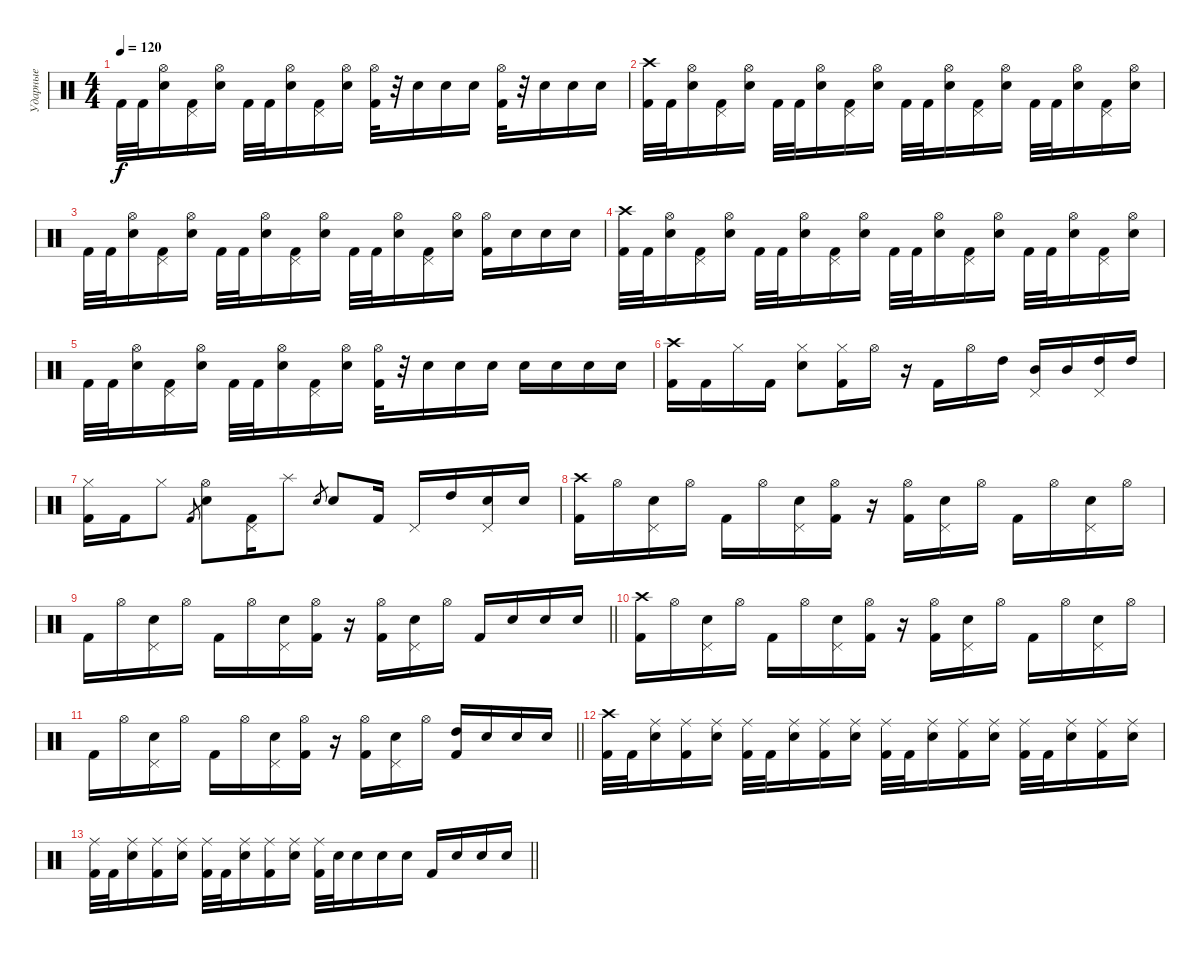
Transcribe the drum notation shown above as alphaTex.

\track ("Ударные" "Ударные") {instrument percussion}
\staff {score}
\articulation defaults
\ts (4 4)
\tempo 120
\clef neutral
\ks c "Kick (hit) 2".32{dy f} "Kick (hit) 2".32
("Electric Snare (hit)" "Hi-Hat (open)").16 ("Kick (hit) 2" "Pedal Hi-Hat (hit)").16 ("Electric Snare (hit)" "Hi-Hat (open)").16 "Kick (hit) 2".32 "Kick (hit) 2".32 ("Electric Snare (hit)" "Hi-Hat (open)").16 ("Kick (hit) 2" "Pedal Hi-Hat (hit)").16 ("Electric Snare (hit)" "Hi-Hat (open)").16 ("Kick (hit) 2" "Hi-Hat (open)").32 r.32 "Electric Snare (hit)".16 "Electric Snare (hit)".16 "Electric Snare (hit)".16 ("Kick (hit) 2" "Hi-Hat (open)").32 r.32 "Electric Snare (hit)".16 "Electric Snare (hit)".16 "Electric Snare (hit)".16 |
("Kick (hit) 2" "Crash high (hit)").32 "Kick (hit) 2".32 ("Electric Snare (hit)" "Hi-Hat (open)").16 ("Kick (hit) 2" "Pedal Hi-Hat (hit)").16 ("Electric Snare (hit)" "Hi-Hat (open)").16 "Kick (hit) 2".32 "Kick (hit) 2".32 ("Electric Snare (hit)" "Hi-Hat (open)").16 ("Kick (hit) 2" "Pedal Hi-Hat (hit)").16 ("Electric Snare (hit)" "Hi-Hat (open)").16 "Kick (hit) 2".32 "Kick (hit) 2".32 ("Electric Snare (hit)" "Hi-Hat (open)").16 ("Kick (hit) 2" "Pedal Hi-Hat (hit)").16 ("Electric Snare (hit)" "Hi-Hat (open)").16 "Kick (hit) 2".32 "Kick (hit) 2".32 ("Electric Snare (hit)" "Hi-Hat (open)").16 ("Kick (hit) 2" "Pedal Hi-Hat (hit)").16 ("Electric Snare (hit)" "Hi-Hat (open)").16 |
"Kick (hit) 2".32 "Kick (hit) 2".32 ("Electric Snare (hit)" "Hi-Hat (open)").16 ("Kick (hit) 2" "Pedal Hi-Hat (hit)").16 ("Electric Snare (hit)" "Hi-Hat (open)").16 "Kick (hit) 2".32 "Kick (hit) 2".32 ("Electric Snare (hit)" "Hi-Hat (open)").16 ("Kick (hit) 2" "Pedal Hi-Hat (hit)").16 ("Electric Snare (hit)" "Hi-Hat (open)").16 "Kick (hit) 2".32 "Kick (hit) 2".32 ("Electric Snare (hit)" "Hi-Hat (open)").16 ("Kick (hit) 2" "Pedal Hi-Hat (hit)").16 ("Electric Snare (hit)" "Hi-Hat (open)").16 ("Kick (hit) 2" "Hi-Hat (open)").16 "Electric Snare (hit)".16 "Electric Snare (hit)".16 "Electric Snare (hit)".16 |
("Kick (hit) 2" "Crash high (hit)").32 "Kick (hit) 2".32 ("Electric Snare (hit)" "Hi-Hat (open)").16 ("Kick (hit) 2" "Pedal Hi-Hat (hit)").16 ("Electric Snare (hit)" "Hi-Hat (open)").16 "Kick (hit) 2".32 "Kick (hit) 2".32 ("Electric Snare (hit)" "Hi-Hat (open)").16 ("Kick (hit) 2" "Pedal Hi-Hat (hit)").16 ("Electric Snare (hit)" "Hi-Hat (open)").16 "Kick (hit) 2".32 "Kick (hit) 2".32 ("Electric Snare (hit)" "Hi-Hat (open)").16 ("Kick (hit) 2" "Pedal Hi-Hat (hit)").16 ("Electric Snare (hit)" "Hi-Hat (open)").16 "Kick (hit) 2".32 "Kick (hit) 2".32 ("Electric Snare (hit)" "Hi-Hat (open)").16 ("Kick (hit) 2" "Pedal Hi-Hat (hit)").16 ("Electric Snare (hit)" "Hi-Hat (open)").16 |
"Kick (hit) 2".32 "Kick (hit) 2".32 ("Electric Snare (hit)" "Hi-Hat (open)").16 ("Kick (hit) 2" "Pedal Hi-Hat (hit)").16 ("Electric Snare (hit)" "Hi-Hat (open)").16 "Kick (hit) 2".32 "Kick (hit) 2".32 ("Electric Snare (hit)" "Hi-Hat (open)").16 ("Kick (hit) 2" "Pedal Hi-Hat (hit)").16 ("Electric Snare (hit)" "Hi-Hat (open)").16 ("Kick (hit) 2" "Hi-Hat (open)").32 r.32 "Electric Snare (hit)".16 "Electric Snare (hit)".16 "Electric Snare (hit)".16 "Electric Snare (hit)".16 "Electric Snare (hit)".16 "Electric Snare (hit)".16 "Electric Snare (hit)".16 |
("Kick (hit) 2" "Crash high (hit)").16 "Kick (hit) 2".16 "Hi-Hat (closed)".16 "Kick (hit) 2".16 ("Electric Snare (hit)" "Hi-Hat (closed)").8 ("Kick (hit) 2" "Hi-Hat (closed)").16 "Hi-Hat (open)".16 r.16 "Kick (hit) 2".16 "Hi-Hat (open)".16 "High Tom (hit)".16 ("Pedal Hi-Hat (hit)" "Mid Tom (hit)").16 "Mid Tom (hit)".16 ("Pedal Hi-Hat (hit)" "High Tom (hit)").16 "High Tom (hit)".16 |
("Kick (hit) 2" "Hi-Hat (closed)").16 "Kick (hit) 2".16 "Hi-Hat (closed)".8 "Kick (hit) 2".8{gr} ("Electric Snare (hit)" "Hi-Hat (open)").8 ("Kick (hit) 2" "Pedal Hi-Hat (hit)").16 "Splash (hit)".8 "Electric Snare (hit)".8{gr} "Electric Snare (hit)".8 "Kick (hit) 2".16 "Pedal Hi-Hat (hit)".16 "High Tom (hit)".16 ("Pedal Hi-Hat (hit)" "Electric Snare (hit)").16 "Electric Snare (hit)".16 |
("Kick (hit) 2" "Crash high (hit)").16 "Hi-Hat (open)".16 ("Pedal Hi-Hat (hit)" "Electric Snare (hit)").16 "Hi-Hat (open)".16 "Kick (hit) 2".16 "Hi-Hat (open)".16 ("Pedal Hi-Hat (hit)" "Electric Snare (hit)").16 ("Kick (hit) 2" "Hi-Hat (open)").16 r.16 ("Kick (hit) 2" "Hi-Hat (open)").16 ("Pedal Hi-Hat (hit)" "Electric Snare (hit)").16 "Hi-Hat (open)".16 "Kick (hit) 2".16 "Hi-Hat (open)".16 ("Pedal Hi-Hat (hit)" "Electric Snare (hit)").16 "Hi-Hat (open)".16 |
\barLineRight lightlight "Kick (hit) 2".16 "Hi-Hat (open)".16
("Pedal Hi-Hat (hit)" "Electric Snare (hit)").16 "Hi-Hat (open)".16 "Kick (hit) 2".16 "Hi-Hat (open)".16 ("Pedal Hi-Hat (hit)" "Electric Snare (hit)").16 ("Kick (hit) 2" "Hi-Hat (open)").16 r.16 ("Kick (hit) 2" "Hi-Hat (open)").16 ("Pedal Hi-Hat (hit)" "Electric Snare (hit)").16 "Hi-Hat (open)".16 "Kick (hit) 2".16 "Electric Snare (hit)".16 "Electric Snare (hit)".16 "Electric Snare (hit)".16 |
("Kick (hit) 2" "Crash high (hit)").16 "Hi-Hat (open)".16 ("Pedal Hi-Hat (hit)" "Electric Snare (hit)").16 "Hi-Hat (open)".16 "Kick (hit) 2".16 "Hi-Hat (open)".16 ("Pedal Hi-Hat (hit)" "Electric Snare (hit)").16 ("Kick (hit) 2" "Hi-Hat (open)").16 r.16 ("Kick (hit) 2" "Hi-Hat (open)").16 ("Pedal Hi-Hat (hit)" "Electric Snare (hit)").16 "Hi-Hat (open)".16 "Kick (hit) 2".16 "Hi-Hat (open)".16 ("Pedal Hi-Hat (hit)" "Electric Snare (hit)").16 "Hi-Hat (open)".16 |
\barLineRight lightlight "Kick (hit) 2".16 "Hi-Hat (open)".16
("Pedal Hi-Hat (hit)" "Electric Snare (hit)").16 "Hi-Hat (open)".16 "Kick (hit) 2".16 "Hi-Hat (open)".16 ("Pedal Hi-Hat (hit)" "Electric Snare (hit)").16 ("Kick (hit) 2" "Hi-Hat (open)").16 r.16 ("Kick (hit) 2" "Hi-Hat (open)").16 ("Pedal Hi-Hat (hit)" "Electric Snare (hit)").16 "Hi-Hat (open)".16 ("Kick (hit) 2" "High Tom (hit)").16 "Electric Snare (hit)".16 "Electric Snare (hit)".16 "Electric Snare (hit)".16 |
("Kick (hit) 2" "Crash high (hit)").32 "Kick (hit) 2".32 ("Electric Snare (hit)" "Ride (middle)").16 ("Kick (hit) 2" "Ride (middle)").16 ("Electric Snare (hit)" "Ride (middle)").16 ("Kick (hit) 2" "Ride (middle)").32 "Kick (hit) 2".32 ("Electric Snare (hit)" "Ride (middle)").16 ("Kick (hit) 2" "Ride (middle)").16 ("Electric Snare (hit)" "Ride (middle)").16 ("Kick (hit) 2" "Ride (middle)").32 "Kick (hit) 2".32 ("Electric Snare (hit)" "Ride (middle)").16 ("Kick (hit) 2" "Ride (middle)").16 ("Electric Snare (hit)" "Ride (middle)").16 ("Kick (hit) 2" "Ride (middle)").32 "Kick (hit) 2".32 ("Electric Snare (hit)" "Ride (middle)").16 ("Kick (hit) 2" "Ride (middle)").16 ("Electric Snare (hit)" "Ride (middle)").16 |
\barLineRight lightlight
("Kick (hit) 2" "Ride (middle)").32 "Kick (hit) 2".32 ("Electric Snare (hit)" "Ride (middle)").16 ("Kick (hit) 2" "Ride (middle)").16 ("Electric Snare (hit)" "Ride (middle)").16 ("Kick (hit) 2" "Ride (middle)").32 "Kick (hit) 2".32 ("Electric Snare (hit)" "Ride (middle)").16 ("Kick (hit) 2" "Ride (middle)").16 ("Electric Snare (hit)" "Ride (middle)").16 ("Kick (hit) 2" "Ride (middle)").32 "Electric Snare (hit)".32 "Electric Snare (hit)".16 "Electric Snare (hit)".16 "Electric Snare (hit)".16 "Kick (hit) 2".16 "Electric Snare (hit)".16 "Electric Snare (hit)".16 "Electric Snare (hit)".16
